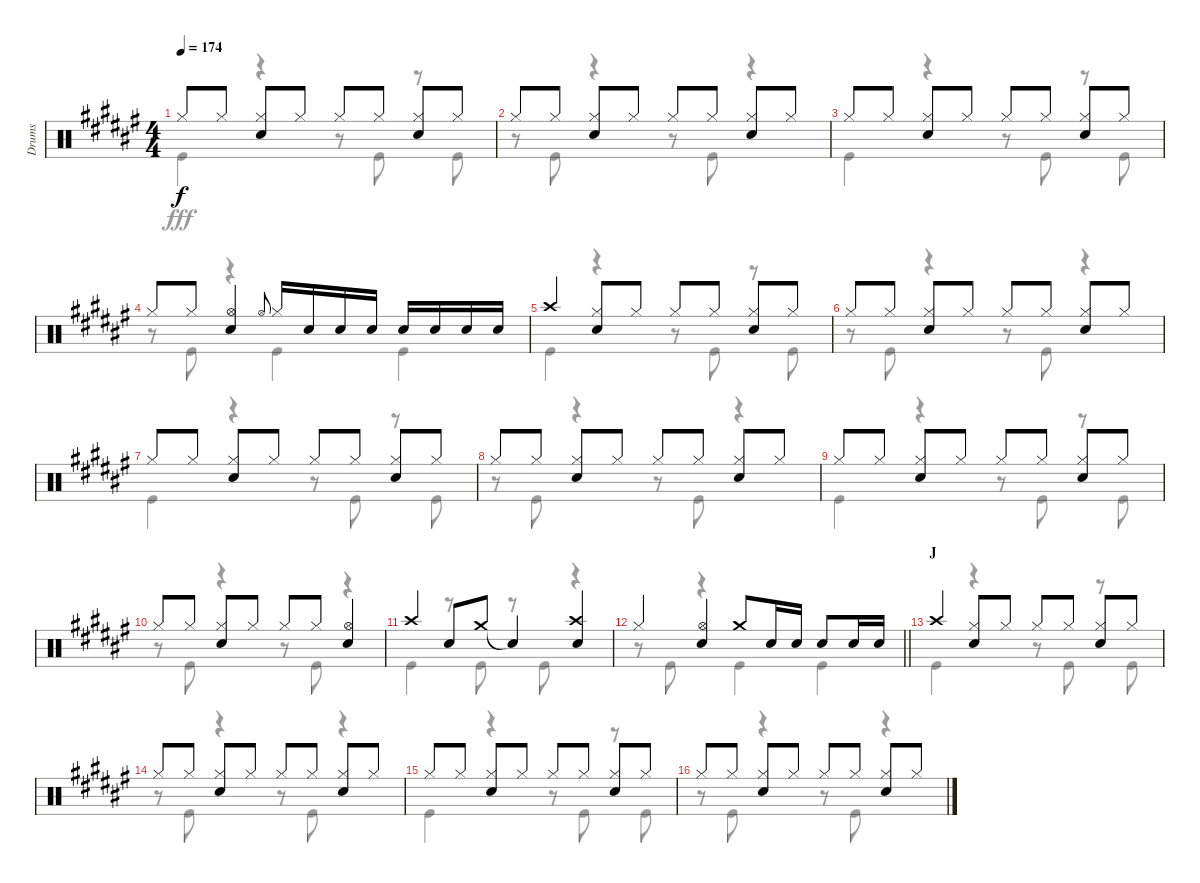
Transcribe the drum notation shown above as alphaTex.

\track ("Drums" "Drums") {instrument percussion}
\staff {score}
\articulation defaults
\voice
\ts (4 4)
\tempo 174
\clef neutral
\ks f# "Hi-Hat (closed)".8{dy f} "Hi-Hat (closed)".8
("Hi-Hat (closed)" "Snare (hit) 2").8 "Hi-Hat (closed)".8 "Hi-Hat (closed)".8 "Hi-Hat (closed)".8 ("Hi-Hat (closed)" "Snare (hit) 2").8 "Hi-Hat (closed)".8 |
"Hi-Hat (closed)".8 "Hi-Hat (closed)".8 ("Hi-Hat (closed)" "Snare (hit) 2").8 "Hi-Hat (closed)".8 "Hi-Hat (closed)".8 "Hi-Hat (closed)".8 ("Hi-Hat (closed)" "Snare (hit) 2").8 "Hi-Hat (closed)".8 |
"Hi-Hat (closed)".8 "Hi-Hat (closed)".8 ("Hi-Hat (closed)" "Snare (hit) 2").8 "Hi-Hat (closed)".8 "Hi-Hat (closed)".8 "Hi-Hat (closed)".8 ("Hi-Hat (closed)" "Snare (hit) 2").8 "Hi-Hat (closed)".8 |
"Hi-Hat (closed)".8 "Hi-Hat (closed)".8 ("Hi-Hat (open)" "Snare (hit) 2").4 "Hi-Hat (open)".8{gr onbeat} "Hi-Hat (closed)".16 "Snare (hit) 2".16 "Snare (hit) 2".16 "Snare (hit) 2".16 "Snare (hit) 2".16 "Snare (hit) 2".16 "Snare (hit) 2".16 "Snare (hit) 2".16 |
"Crash high (hit)".4 ("Hi-Hat (closed)" "Snare (hit) 2").8 "Hi-Hat (closed)".8 "Hi-Hat (closed)".8 "Hi-Hat (closed)".8 ("Hi-Hat (closed)" "Snare (hit) 2").8 "Hi-Hat (closed)".8 |
"Hi-Hat (closed)".8 "Hi-Hat (closed)".8 ("Hi-Hat (closed)" "Snare (hit) 2").8 "Hi-Hat (closed)".8 "Hi-Hat (closed)".8 "Hi-Hat (closed)".8 ("Hi-Hat (closed)" "Snare (hit) 2").8 "Hi-Hat (closed)".8 |
"Hi-Hat (closed)".8 "Hi-Hat (closed)".8 ("Hi-Hat (closed)" "Snare (hit) 2").8 "Hi-Hat (closed)".8 "Hi-Hat (closed)".8 "Hi-Hat (closed)".8 ("Hi-Hat (closed)" "Snare (hit) 2").8 "Hi-Hat (closed)".8 |
"Hi-Hat (closed)".8 "Hi-Hat (closed)".8 ("Hi-Hat (closed)" "Snare (hit) 2").8 "Hi-Hat (closed)".8 "Hi-Hat (closed)".8 "Hi-Hat (closed)".8 ("Hi-Hat (closed)" "Snare (hit) 2").8 "Hi-Hat (closed)".8 |
"Hi-Hat (closed)".8 "Hi-Hat (closed)".8 ("Hi-Hat (closed)" "Snare (hit) 2").8 "Hi-Hat (closed)".8 "Hi-Hat (closed)".8 "Hi-Hat (closed)".8 ("Hi-Hat (closed)" "Snare (hit) 2").8 "Hi-Hat (closed)".8 |
"Hi-Hat (closed)".8 "Hi-Hat (closed)".8 ("Hi-Hat (closed)" "Snare (hit) 2").8 "Hi-Hat (closed)".8 "Hi-Hat (closed)".8 "Hi-Hat (closed)".8 ("Hi-Hat (open)" "Snare (hit) 2").4 |
"Crash high (hit)".4 "Snare (hit) 2".8 "Crash medium (hit)".8 "Snare (hit)"{t}.4 ("Crash high (hit)" "Snare (hit) 2").4 |
\barLineRight lightlight "Hi-Hat (closed)".4
("Hi-Hat (open)" "Snare (hit) 2").4 "Crash medium (hit)".8 "Snare (hit) 2".16 "Snare (hit) 2".16 "Snare (hit) 2".8 "Snare (hit) 2".16 "Snare (hit) 2".16 |
\section ("" "J")
"Crash high (hit)".4 ("Hi-Hat (closed)" "Snare (hit) 2").8 "Hi-Hat (closed)".8 "Hi-Hat (closed)".8 "Hi-Hat (closed)".8 ("Hi-Hat (closed)" "Snare (hit) 2").8 "Hi-Hat (closed)".8 |
"Hi-Hat (closed)".8 "Hi-Hat (closed)".8 ("Hi-Hat (closed)" "Snare (hit) 2").8 "Hi-Hat (closed)".8 "Hi-Hat (closed)".8 "Hi-Hat (closed)".8 ("Hi-Hat (closed)" "Snare (hit) 2").8 "Hi-Hat (closed)".8 |
"Hi-Hat (closed)".8 "Hi-Hat (closed)".8 ("Hi-Hat (closed)" "Snare (hit) 2").8 "Hi-Hat (closed)".8 "Hi-Hat (closed)".8 "Hi-Hat (closed)".8 ("Hi-Hat (closed)" "Snare (hit) 2").8 "Hi-Hat (closed)".8 |
"Hi-Hat (closed)".8 "Hi-Hat (closed)".8 ("Hi-Hat (closed)" "Snare (hit) 2").8 "Hi-Hat (closed)".8 "Hi-Hat (closed)".8 "Hi-Hat (closed)".8 ("Hi-Hat (closed)" "Snare (hit) 2").8 "Hi-Hat (closed)".8
\voice
\clef neutral
\ottava regular
\simile none
\ks f# "Kick (hit)".4{dy fff}
r.4 r.8 "Kick (hit)".8 r.8 "Kick (hit)".8 |
r.8 "Kick (hit)".8 r.4 r.8 "Kick (hit)".8 r.4 |
"Kick (hit)".4 r.4 r.8 "Kick (hit)".8 r.8 "Kick (hit)".8 |
r.8 "Kick (hit)".8 r.4 "Kick (hit)".4 "Kick (hit)".4 |
"Kick (hit)".4 r.4 r.8 "Kick (hit)".8 r.8 "Kick (hit)".8 |
r.8 "Kick (hit)".8 r.4 r.8 "Kick (hit)".8 r.4 |
"Kick (hit)".4 r.4 r.8 "Kick (hit)".8 r.8 "Kick (hit)".8 |
r.8 "Kick (hit)".8 r.4 r.8 "Kick (hit)".8 r.4 |
"Kick (hit)".4 r.4 r.8 "Kick (hit)".8 r.8 "Kick (hit)".8 |
r.8 "Kick (hit)".8 r.4 r.8 "Kick (hit)".8 r.4 |
"Kick (hit)".4 r.8 "Kick (hit)".8 r.8 "Kick (hit)".8 r.4 |
\barLineRight lightlight
r.8 "Kick (hit)".8 r.4 "Kick (hit)".4 "Kick (hit)".4 |
"Kick (hit)".4 r.4 r.8 "Kick (hit)".8 r.8 "Kick (hit)".8 |
r.8 "Kick (hit)".8 r.4 r.8 "Kick (hit)".8 r.4 |
"Kick (hit)".4 r.4 r.8 "Kick (hit)".8 r.8 "Kick (hit)".8 |
r.8 "Kick (hit)".8 r.4 r.8 "Kick (hit)".8 r.4
